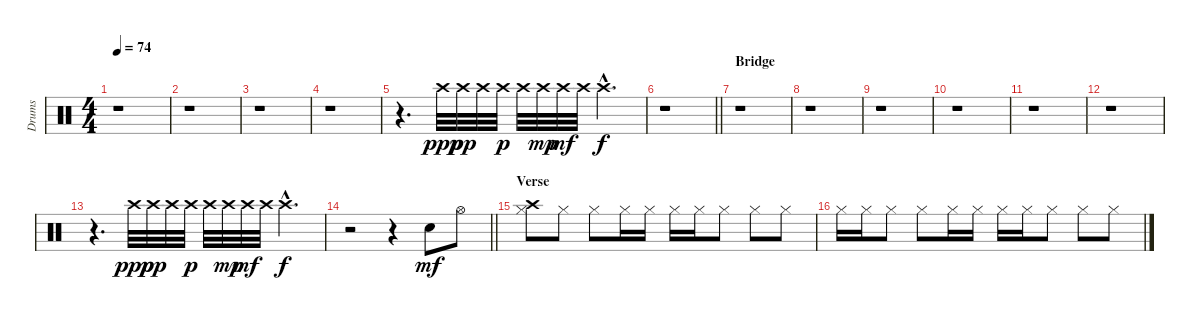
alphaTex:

\track ("Drums" "Drums") {instrument percussion}
\staff {score}
\articulation defaults
\ts (4 4)
\tempo 74
\clef neutral
\ks c
r.1{dy f} |
r.1 |
r.1 |
r.1 |
r.4{d} "Crash high (hit)".32{dy ppp} "Crash high (hit)".32{dy pp} "Crash high (hit)".32 "Crash high (hit)".32{dy p} "Crash high (hit)".32 "Crash high (hit)".32{dy mp} "Crash high (hit)".32{dy mf} "Crash high (hit)".32 "Crash high (hit)"{hac}.4{d dy f} |
\barLineRight lightlight
r.1 |
\section ("" "Bridge")
r.1 |
r.1 |
r.1 |
r.1 |
r.1 |
r.1 |
r.4{d} "Crash high (hit)".32{dy ppp} "Crash high (hit)".32{dy pp} "Crash high (hit)".32 "Crash high (hit)".32{dy p} "Crash high (hit)".32 "Crash high (hit)".32{dy mp} "Crash high (hit)".32{dy mf} "Crash high (hit)".32 "Crash high (hit)"{hac}.4{d dy f} |
\barLineRight lightlight
r.2 r.4 "Electric Snare (hit)".8{dy mf} "Hi-Hat (open)".8 |
\section ("" "Verse")
("Crash high (hit)" "Hi-Hat (closed)").8 "Hi-Hat (closed)".8 "Hi-Hat (closed)".8 "Hi-Hat (closed)".16 "Hi-Hat (closed)".16 "Hi-Hat (closed)".16 "Hi-Hat (closed)".16 "Hi-Hat (closed)".8 "Hi-Hat (closed)".8 "Hi-Hat (closed)".8 |
"Hi-Hat (closed)".16 "Hi-Hat (closed)".16 "Hi-Hat (closed)".8 "Hi-Hat (closed)".8 "Hi-Hat (closed)".16 "Hi-Hat (closed)".16 "Hi-Hat (closed)".16 "Hi-Hat (closed)".16 "Hi-Hat (closed)".8 "Hi-Hat (closed)".8 "Hi-Hat (closed)".8
